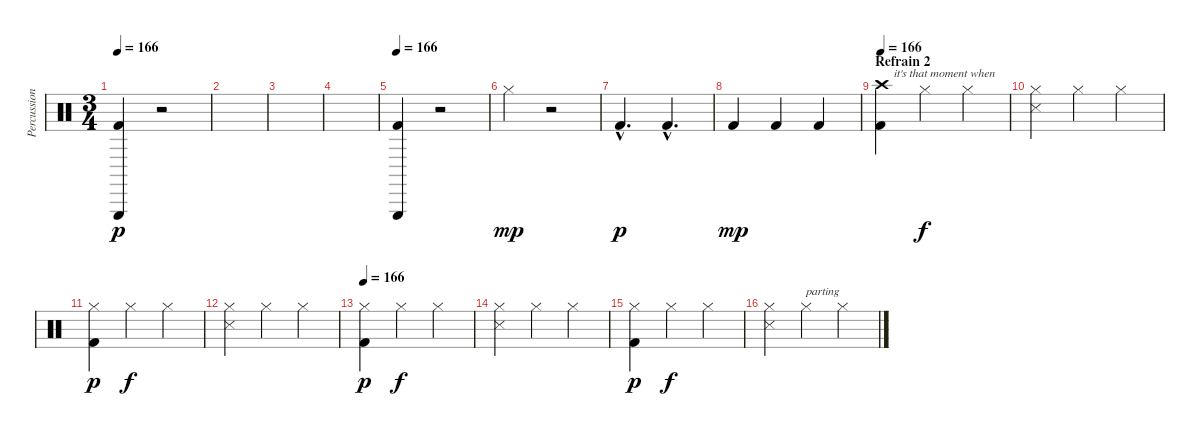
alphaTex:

\track ("Percussion" "Percussion") {instrument percussion}
\staff {score}
\articulation defaults
\ts (3 4)
\tempo 166
\clef neutral
\ks c
("Triangle (hit)" "Kick (hit) 2").4{dy p} r.2 |
|
|
|
\tempo 166
("Triangle (hit)" "Kick (hit) 2").4 r.2 |
"Hi-Hat (closed)".4{dy mp} r.2 |
"Kick (hit) 2"{hac}.4{d dy p} "Kick (hit) 2"{hac}.4{d} |
"Kick (hit) 2".4{dy mp} "Kick (hit) 2".4 "Kick (hit) 2".4 |
\section ("" "Refrain 2")
\tempo 166
("Crash high (hit)" "Kick (hit) 2").4{txt "    it's that moment when"} "Hi-Hat (closed)".4{dy f} "Hi-Hat (closed)".4 |
("Hi-Hat (closed)" "Snare (side stick) 3").4 "Hi-Hat (closed)".4 "Hi-Hat (closed)".4 |
("Hi-Hat (closed)" "Kick (hit) 2").4{dy p} "Hi-Hat (closed)".4{dy f} "Hi-Hat (closed)".4 |
("Hi-Hat (closed)" "Snare (side stick) 3").4 "Hi-Hat (closed)".4 "Hi-Hat (closed)".4 |
\tempo 166
("Hi-Hat (closed)" "Kick (hit) 2").4{dy p} "Hi-Hat (closed)".4{dy f} "Hi-Hat (closed)".4 |
("Hi-Hat (closed)" "Snare (side stick) 3").4 "Hi-Hat (closed)".4 "Hi-Hat (closed)".4 |
("Hi-Hat (closed)" "Kick (hit) 2").4{dy p} "Hi-Hat (closed)".4{dy f} "Hi-Hat (closed)".4 |
("Hi-Hat (closed)" "Snare (side stick) 3").4 "Hi-Hat (closed)".4{txt "parting"} "Hi-Hat (closed)".4
